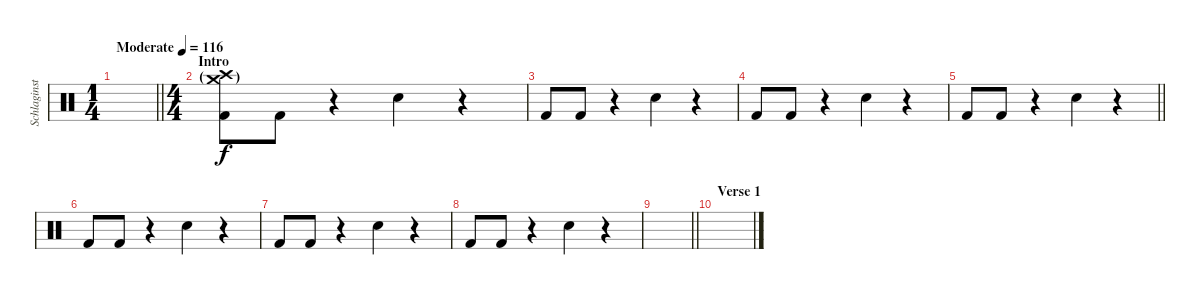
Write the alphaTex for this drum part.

\track ("Schlaginstrumente - Auswahl" "Schlaginst") {mute instrument percussion}
\staff {score}
\articulation defaults
\ts (1 4)
\tempo (116 "Moderate")
\clef neutral
\barLineRight lightlight
\ks c
|
\ts (4 4)
\section ("" "Intro")
("Crash high (hit)"{g} "Crash medium (hit)"{g} "Kick (hit) 2").8 "Kick (hit) 2".8 r.4 "Snare (hit) 2".4 r.4 |
"Kick (hit) 2".8 "Kick (hit) 2".8 r.4 "Snare (hit) 2".4 r.4 |
"Kick (hit) 2".8 "Kick (hit) 2".8 r.4 "Snare (hit) 2".4 r.4 |
\barLineRight lightlight "Kick (hit) 2".8 "Kick (hit) 2".8
r.4 "Snare (hit) 2".4 r.4 |
"Kick (hit) 2".8 "Kick (hit) 2".8 r.4 "Snare (hit) 2".4 r.4 |
"Kick (hit) 2".8 "Kick (hit) 2".8 r.4 "Snare (hit) 2".4 r.4 |
"Kick (hit) 2".8 "Kick (hit) 2".8 r.4 "Snare (hit) 2".4 r.4 |
\barLineRight lightlight
|
\section ("" "Verse 1")
